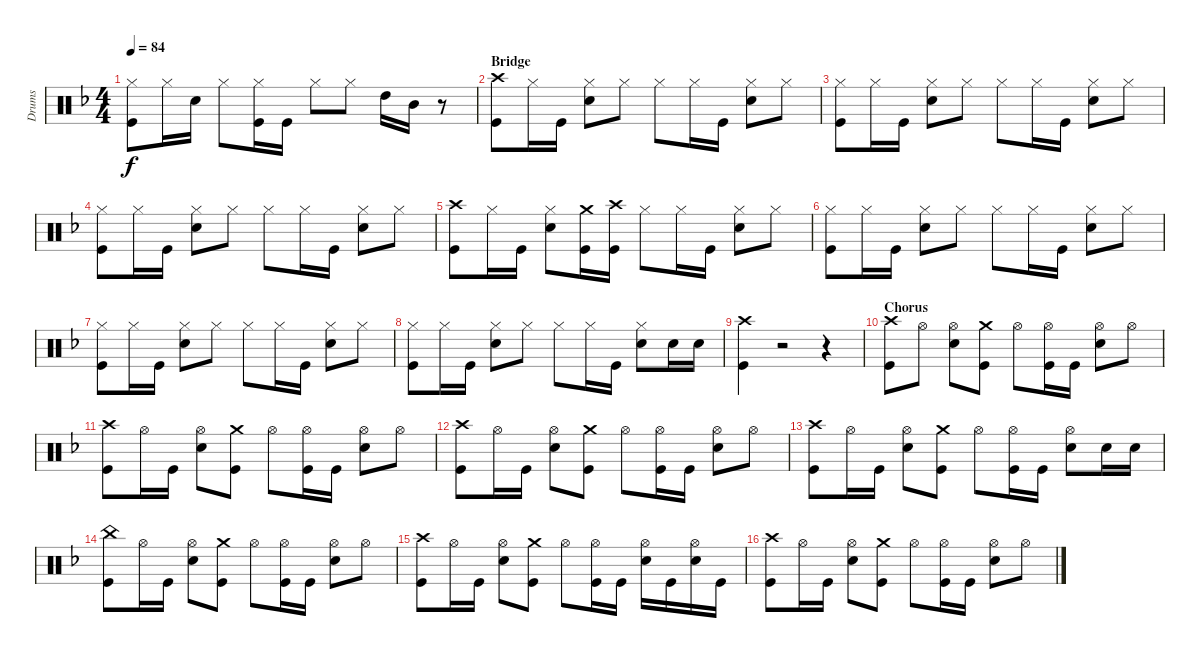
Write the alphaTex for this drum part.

\track ("Drums" "Drums") {instrument percussion}
\staff {score}
\articulation defaults
\ts (4 4)
\tempo 84
\clef neutral
\ks dminor
("Hi-Hat (closed)" "Kick (hit)").8{dy f} "Hi-Hat (closed)".16 "Snare (hit) 2".16 "Hi-Hat (closed)".8 ("Hi-Hat (closed)" "Kick (hit)").16 "Kick (hit)".16 "Hi-Hat (closed)".8 "Hi-Hat (closed)".8 "High Tom (hit)".16 "Mid Tom (hit)".16 r.8 |
\section ("" "Bridge")
("Crash high (hit)" "Kick (hit)").8 "Hi-Hat (closed)".16 "Kick (hit)".16 ("Hi-Hat (closed)" "Snare (hit) 2").8 "Hi-Hat (closed)".8 "Hi-Hat (closed)".8 "Hi-Hat (closed)".16 "Kick (hit)".16 ("Hi-Hat (closed)" "Snare (hit) 2").8 "Hi-Hat (closed)".8 |
("Hi-Hat (closed)" "Kick (hit)").8 "Hi-Hat (closed)".16 "Kick (hit)".16 ("Hi-Hat (closed)" "Snare (hit) 2").8 "Hi-Hat (closed)".8 "Hi-Hat (closed)".8 "Hi-Hat (closed)".16 "Kick (hit)".16 ("Hi-Hat (closed)" "Snare (hit) 2").8 "Hi-Hat (closed)".8 |
("Hi-Hat (closed)" "Kick (hit)").8 "Hi-Hat (closed)".16 "Kick (hit)".16 ("Hi-Hat (closed)" "Snare (hit) 2").8 "Hi-Hat (closed)".8 "Hi-Hat (closed)".8 "Hi-Hat (closed)".16 "Kick (hit)".16 ("Hi-Hat (closed)" "Snare (hit) 2").8 "Hi-Hat (closed)".8 |
("Crash high (hit)" "Kick (hit)").8 "Hi-Hat (closed)".16 "Kick (hit)".16 ("Hi-Hat (closed)" "Snare (hit) 2").8 ("Crash medium (hit)" "Kick (hit)").16 ("Crash high (hit)" "Kick (hit)").16 "Hi-Hat (closed)".8 "Hi-Hat (closed)".16 "Kick (hit)".16 ("Hi-Hat (closed)" "Snare (hit) 2").8 "Hi-Hat (closed)".8 |
("Hi-Hat (closed)" "Kick (hit)").8 "Hi-Hat (closed)".16 "Kick (hit)".16 ("Hi-Hat (closed)" "Snare (hit) 2").8 "Hi-Hat (closed)".8 "Hi-Hat (closed)".8 "Hi-Hat (closed)".16 "Kick (hit)".16 ("Hi-Hat (closed)" "Snare (hit) 2").8 "Hi-Hat (closed)".8 |
("Hi-Hat (closed)" "Kick (hit)").8 "Hi-Hat (closed)".16 "Kick (hit)".16 ("Hi-Hat (closed)" "Snare (hit) 2").8 "Hi-Hat (closed)".8 "Hi-Hat (closed)".8 "Hi-Hat (closed)".16 "Kick (hit)".16 ("Hi-Hat (closed)" "Snare (hit) 2").8 "Hi-Hat (closed)".8 |
("Hi-Hat (closed)" "Kick (hit)").8 "Hi-Hat (closed)".16 "Kick (hit)".16 ("Hi-Hat (closed)" "Snare (hit) 2").8 "Hi-Hat (closed)".8 "Hi-Hat (closed)".8 "Hi-Hat (closed)".16 "Kick (hit)".16 ("Hi-Hat (closed)" "Snare (hit) 2").8 "Snare (hit) 2".16 "Snare (hit) 2".16 |
("Crash high (hit)" "Kick (hit)").4 r.2 r.4 |
\section ("" "Chorus")
("Crash high (hit)" "Kick (hit)").8 "Hi-Hat (open)".8 ("Hi-Hat (open)" "Snare (hit) 2").8 ("Crash medium (hit)" "Kick (hit)").8 "Hi-Hat (open)".8 ("Hi-Hat (open)" "Kick (hit)").16 "Kick (hit)".16 ("Hi-Hat (open)" "Snare (hit) 2").8 "Hi-Hat (open)".8 |
("Crash high (hit)" "Kick (hit)").8 "Hi-Hat (open)".16 "Kick (hit)".16 ("Hi-Hat (open)" "Snare (hit) 2").8 ("Crash medium (hit)" "Kick (hit)").8 "Hi-Hat (open)".8 ("Hi-Hat (open)" "Kick (hit)").16 "Kick (hit)".16 ("Hi-Hat (open)" "Snare (hit) 2").8 "Hi-Hat (open)".8 |
("Crash high (hit)" "Kick (hit)").8 "Hi-Hat (open)".16 "Kick (hit)".16 ("Hi-Hat (open)" "Snare (hit) 2").8 ("Crash medium (hit)" "Kick (hit)").8 "Hi-Hat (open)".8 ("Hi-Hat (open)" "Kick (hit)").16 "Kick (hit)".16 ("Hi-Hat (open)" "Snare (hit) 2").8 "Hi-Hat (open)".8 |
("Crash high (hit)" "Kick (hit)").8 "Hi-Hat (open)".16 "Kick (hit)".16 ("Hi-Hat (open)" "Snare (hit) 2").8 ("Crash medium (hit)" "Kick (hit)").8 "Hi-Hat (open)".8 ("Hi-Hat (open)" "Kick (hit)").16 "Kick (hit)".16 ("Hi-Hat (open)" "Snare (hit) 2").8 "Snare (hit) 2".16 "Snare (hit) 2".16 |
("China (hit)" "Kick (hit)").8 "Hi-Hat (open)".16 "Kick (hit)".16 ("Hi-Hat (open)" "Snare (hit) 2").8 ("Crash medium (hit)" "Kick (hit)").8 "Hi-Hat (open)".8 ("Hi-Hat (open)" "Kick (hit)").16 "Kick (hit)".16 ("Hi-Hat (open)" "Snare (hit) 2").8 "Hi-Hat (open)".8 |
("Crash high (hit)" "Kick (hit)").8 "Hi-Hat (open)".16 "Kick (hit)".16 ("Hi-Hat (open)" "Snare (hit) 2").8 ("Crash medium (hit)" "Kick (hit)").8 "Hi-Hat (open)".8 ("Hi-Hat (open)" "Kick (hit)").16 "Kick (hit)".16 ("Hi-Hat (open)" "Snare (hit) 2").16 "Kick (hit)".16 ("Hi-Hat (open)" "Snare (hit) 2").16 "Kick (hit)".16 |
("Crash high (hit)" "Kick (hit)").8 "Hi-Hat (open)".16 "Kick (hit)".16 ("Hi-Hat (open)" "Snare (hit) 2").8 ("Crash medium (hit)" "Kick (hit)").8 "Hi-Hat (open)".8 ("Hi-Hat (open)" "Kick (hit)").16 "Kick (hit)".16 ("Hi-Hat (open)" "Snare (hit) 2").8 "Hi-Hat (open)".8
